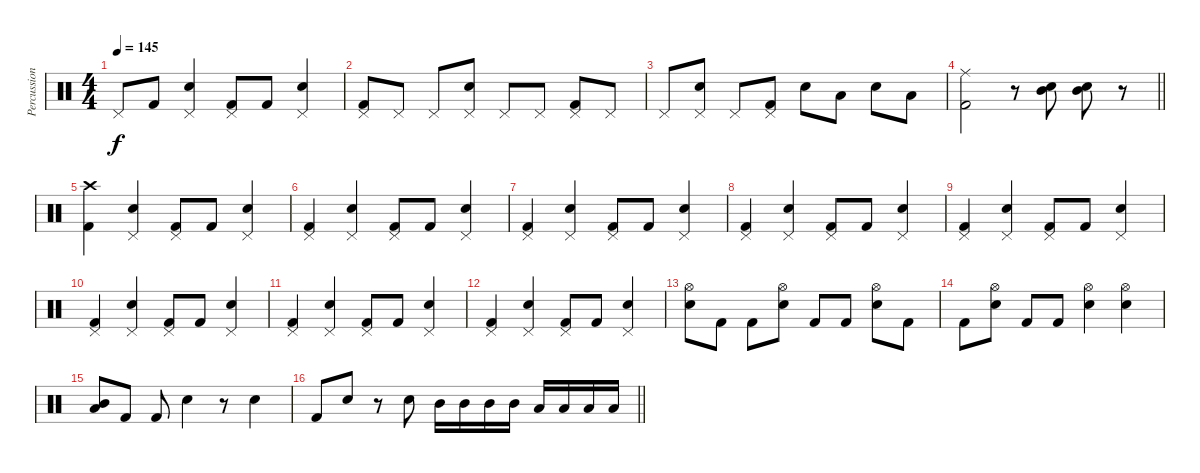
\track ("Percussion" "Percussion") {instrument percussion}
\staff {score}
\articulation defaults
\ts (4 4)
\tempo 145
\clef neutral
\ks c "Pedal Hi-Hat (hit)".8{dy f} "Kick (hit) 2".8
("Pedal Hi-Hat (hit)" "Snare (hit) 2").4 ("Pedal Hi-Hat (hit)" "Kick (hit) 2").8 "Kick (hit) 2".8 ("Pedal Hi-Hat (hit)" "Snare (hit) 2").4 |
("Pedal Hi-Hat (hit)" "Kick (hit) 2").8 "Pedal Hi-Hat (hit)".8 "Pedal Hi-Hat (hit)".8 ("Pedal Hi-Hat (hit)" "Snare (hit) 2").8 "Pedal Hi-Hat (hit)".8 "Pedal Hi-Hat (hit)".8 ("Pedal Hi-Hat (hit)" "Kick (hit) 2").8 "Pedal Hi-Hat (hit)".8 |
"Pedal Hi-Hat (hit)".8 ("Pedal Hi-Hat (hit)" "Snare (hit) 2").8 "Pedal Hi-Hat (hit)".8 ("Pedal Hi-Hat (hit)" "Kick (hit) 2").8 "Snare (hit) 2".8 "Low Tom (hit)".8 "Snare (hit) 2".8 "Low Tom (hit)".8 |
\barLineRight lightlight
("Ride (middle)" "Kick (hit) 2").2 r.8 ("Mid Tom (hit)" "Snare (hit) 2").8 ("Mid Tom (hit)" "Snare (hit) 2").8 r.8 |
\section ("" "")
("Crash high (hit)" "Kick (hit) 2").4 ("Pedal Hi-Hat (hit)" "Snare (hit) 2").4 ("Pedal Hi-Hat (hit)" "Kick (hit) 2").8 "Kick (hit) 2".8 ("Pedal Hi-Hat (hit)" "Snare (hit) 2").4 |
("Pedal Hi-Hat (hit)" "Kick (hit) 2").4 ("Pedal Hi-Hat (hit)" "Snare (hit) 2").4 ("Pedal Hi-Hat (hit)" "Kick (hit) 2").8 "Kick (hit) 2".8 ("Pedal Hi-Hat (hit)" "Snare (hit) 2").4 |
("Pedal Hi-Hat (hit)" "Kick (hit) 2").4 ("Pedal Hi-Hat (hit)" "Snare (hit) 2").4 ("Pedal Hi-Hat (hit)" "Kick (hit) 2").8 "Kick (hit) 2".8 ("Pedal Hi-Hat (hit)" "Snare (hit) 2").4 |
("Pedal Hi-Hat (hit)" "Kick (hit) 2").4 ("Pedal Hi-Hat (hit)" "Snare (hit) 2").4 ("Pedal Hi-Hat (hit)" "Kick (hit) 2").8 "Kick (hit) 2".8 ("Pedal Hi-Hat (hit)" "Snare (hit) 2").4 |
("Pedal Hi-Hat (hit)" "Kick (hit) 2").4 ("Pedal Hi-Hat (hit)" "Snare (hit) 2").4 ("Pedal Hi-Hat (hit)" "Kick (hit) 2").8 "Kick (hit) 2".8 ("Pedal Hi-Hat (hit)" "Snare (hit) 2").4 |
("Pedal Hi-Hat (hit)" "Kick (hit) 2").4 ("Pedal Hi-Hat (hit)" "Snare (hit) 2").4 ("Pedal Hi-Hat (hit)" "Kick (hit) 2").8 "Kick (hit) 2".8 ("Pedal Hi-Hat (hit)" "Snare (hit) 2").4 |
("Pedal Hi-Hat (hit)" "Kick (hit) 2").4 ("Pedal Hi-Hat (hit)" "Snare (hit) 2").4 ("Pedal Hi-Hat (hit)" "Kick (hit) 2").8 "Kick (hit) 2".8 ("Pedal Hi-Hat (hit)" "Snare (hit) 2").4 |
("Pedal Hi-Hat (hit)" "Kick (hit) 2").4 ("Pedal Hi-Hat (hit)" "Snare (hit) 2").4 ("Pedal Hi-Hat (hit)" "Kick (hit) 2").8 "Kick (hit) 2".8 ("Pedal Hi-Hat (hit)" "Snare (hit) 2").4 |
("Hi-Hat (open)" "Snare (hit) 2").8 "Kick (hit) 2".8 "Kick (hit) 2".8 ("Hi-Hat (open)" "Snare (hit) 2").8 "Kick (hit) 2".8 "Kick (hit) 2".8 ("Hi-Hat (open)" "Snare (hit) 2").8 "Kick (hit) 2".8 |
"Kick (hit) 2".8 ("Hi-Hat (open)" "Snare (hit) 2").8 "Kick (hit) 2".8 "Kick (hit) 2".8 ("Hi-Hat (open)" "Snare (hit) 2").4 ("Hi-Hat (open)" "Snare (hit) 2").4 |
("Low Tom (hit)" "Mid Tom (hit)").8 "Kick (hit) 2".8 "Kick (hit) 2".8 "Snare (hit) 2".4 r.8 "Snare (hit) 2".4 |
\barLineRight lightlight "Kick (hit) 2".8 "Snare (hit) 2".8
r.8 "Snare (hit) 2".8 "Mid Tom (hit)".16 "Mid Tom (hit)".16 "Mid Tom (hit)".16 "Mid Tom (hit)".16 "Low Tom (hit)".16 "Low Tom (hit)".16 "Low Tom (hit)".16 "Low Tom (hit)".16
